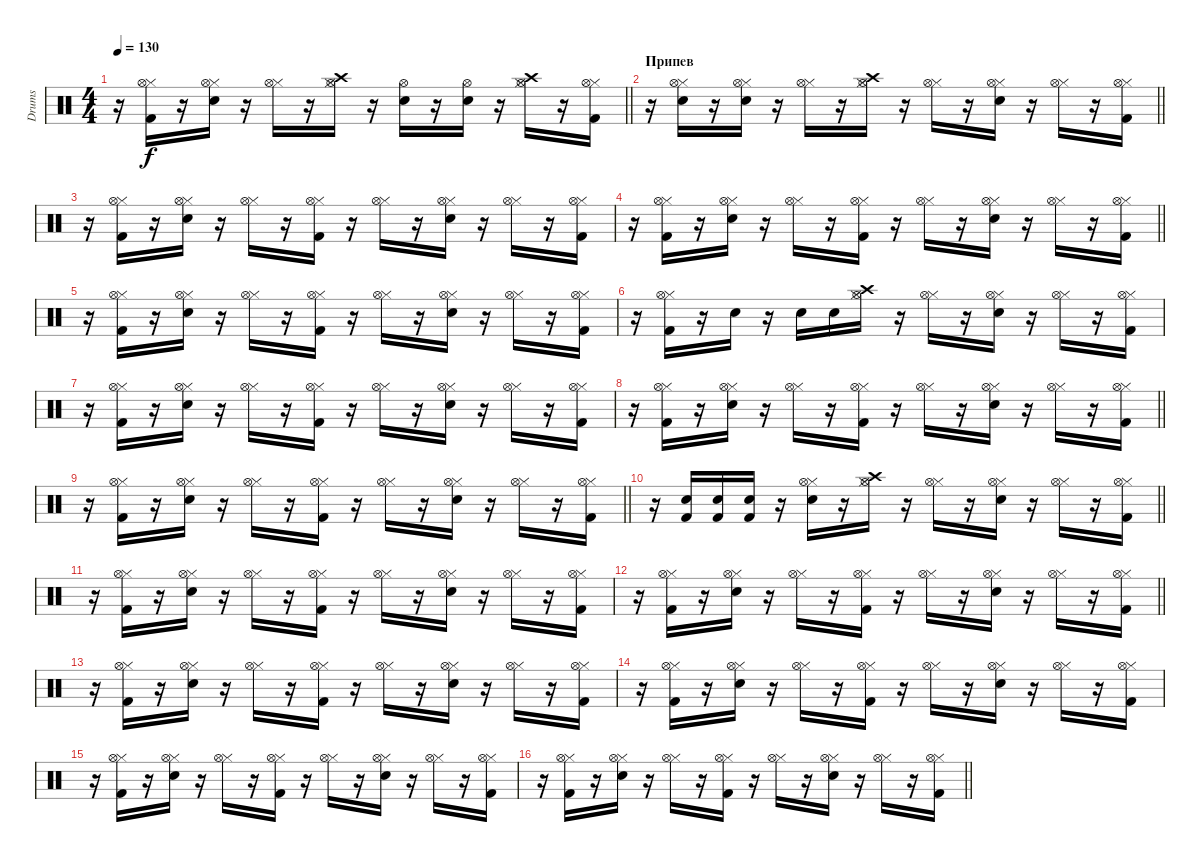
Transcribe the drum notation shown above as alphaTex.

\track ("Drums" "Drums") {instrument percussion}
\staff {score}
\articulation defaults
\ts (4 4)
\tempo 130
\clef neutral
\barLineRight lightlight
\ks c
r.16{dy f} ("Kick (hit) 2" "Hi-Hat (closed)" "Hi-Hat (open)").16 r.16 ("Snare (hit) 2" "Hi-Hat (closed)" "Hi-Hat (open)").16 r.16 ("Hi-Hat (closed)" "Hi-Hat (open)").16 r.16 ("Crash high (hit)" "Hi-Hat (closed)" "Hi-Hat (open)").16 r.16 ("Snare (hit) 2" "Hi-Hat (open)").16 r.16 ("Snare (hit) 2" "Hi-Hat (open)").16 r.16 ("Crash high (hit)" "Hi-Hat (closed)" "Hi-Hat (open)").16 r.16 ("Kick (hit) 2" "Hi-Hat (closed)" "Hi-Hat (open)").16 |
\section ("" "Припев")
\barLineRight lightlight
r.16 ("Snare (hit) 2" "Hi-Hat (closed)" "Hi-Hat (open)").16 r.16 ("Snare (hit) 2" "Hi-Hat (closed)" "Hi-Hat (open)").16 r.16 ("Hi-Hat (closed)" "Hi-Hat (open)").16 r.16 ("Crash high (hit)" "Hi-Hat (closed)" "Hi-Hat (open)").16 r.16 ("Hi-Hat (closed)" "Hi-Hat (open)").16 r.16 ("Snare (hit) 2" "Hi-Hat (closed)" "Hi-Hat (open)").16 r.16 ("Hi-Hat (closed)" "Hi-Hat (open)").16 r.16 ("Kick (hit) 2" "Hi-Hat (closed)" "Hi-Hat (open)").16 |
\section ("" "")
r.16 ("Kick (hit) 2" "Hi-Hat (closed)" "Hi-Hat (open)").16 r.16 ("Snare (hit) 2" "Hi-Hat (closed)" "Hi-Hat (open)").16 r.16 ("Hi-Hat (closed)" "Hi-Hat (open)").16 r.16 ("Kick (hit) 2" "Hi-Hat (closed)" "Hi-Hat (open)").16 r.16 ("Hi-Hat (closed)" "Hi-Hat (open)").16 r.16 ("Snare (hit) 2" "Hi-Hat (closed)" "Hi-Hat (open)").16 r.16 ("Hi-Hat (closed)" "Hi-Hat (open)").16 r.16 ("Kick (hit) 2" "Hi-Hat (closed)" "Hi-Hat (open)").16 |
\barLineRight lightlight
r.16 ("Kick (hit) 2" "Hi-Hat (closed)" "Hi-Hat (open)").16 r.16 ("Snare (hit) 2" "Hi-Hat (closed)" "Hi-Hat (open)").16 r.16 ("Hi-Hat (closed)" "Hi-Hat (open)").16 r.16 ("Kick (hit) 2" "Hi-Hat (closed)" "Hi-Hat (open)").16 r.16 ("Hi-Hat (closed)" "Hi-Hat (open)").16 r.16 ("Snare (hit) 2" "Hi-Hat (closed)" "Hi-Hat (open)").16 r.16 ("Hi-Hat (closed)" "Hi-Hat (open)").16 r.16 ("Kick (hit) 2" "Hi-Hat (closed)" "Hi-Hat (open)").16 |
r.16 ("Kick (hit) 2" "Hi-Hat (closed)" "Hi-Hat (open)").16 r.16 ("Snare (hit) 2" "Hi-Hat (closed)" "Hi-Hat (open)").16 r.16 ("Hi-Hat (closed)" "Hi-Hat (open)").16 r.16 ("Kick (hit) 2" "Hi-Hat (closed)" "Hi-Hat (open)").16 r.16 ("Hi-Hat (closed)" "Hi-Hat (open)").16 r.16 ("Snare (hit) 2" "Hi-Hat (closed)" "Hi-Hat (open)").16 r.16 ("Hi-Hat (closed)" "Hi-Hat (open)").16 r.16 ("Kick (hit) 2" "Hi-Hat (closed)" "Hi-Hat (open)").16 |
r.16 ("Kick (hit) 2" "Hi-Hat (closed)" "Hi-Hat (open)").16 r.16 "Snare (hit) 2".16 r.16 "Snare (hit) 2".16 "Snare (hit) 2".16 ("Crash high (hit)" "Hi-Hat (closed)" "Hi-Hat (open)").16 r.16 ("Hi-Hat (closed)" "Hi-Hat (open)").16 r.16 ("Snare (hit) 2" "Hi-Hat (closed)" "Hi-Hat (open)").16 r.16 ("Hi-Hat (closed)" "Hi-Hat (open)").16 r.16 ("Kick (hit) 2" "Hi-Hat (closed)" "Hi-Hat (open)").16 |
r.16 ("Kick (hit) 2" "Hi-Hat (closed)" "Hi-Hat (open)").16 r.16 ("Snare (hit) 2" "Hi-Hat (closed)" "Hi-Hat (open)").16 r.16 ("Hi-Hat (closed)" "Hi-Hat (open)").16 r.16 ("Kick (hit) 2" "Hi-Hat (closed)" "Hi-Hat (open)").16 r.16 ("Hi-Hat (closed)" "Hi-Hat (open)").16 r.16 ("Snare (hit) 2" "Hi-Hat (closed)" "Hi-Hat (open)").16 r.16 ("Hi-Hat (closed)" "Hi-Hat (open)").16 r.16 ("Kick (hit) 2" "Hi-Hat (closed)" "Hi-Hat (open)").16 |
\barLineRight lightlight
r.16 ("Kick (hit) 2" "Hi-Hat (closed)" "Hi-Hat (open)").16 r.16 ("Snare (hit) 2" "Hi-Hat (closed)" "Hi-Hat (open)").16 r.16 ("Hi-Hat (closed)" "Hi-Hat (open)").16 r.16 ("Kick (hit) 2" "Hi-Hat (closed)" "Hi-Hat (open)").16 r.16 ("Hi-Hat (closed)" "Hi-Hat (open)").16 r.16 ("Snare (hit) 2" "Hi-Hat (closed)" "Hi-Hat (open)").16 r.16 ("Hi-Hat (closed)" "Hi-Hat (open)").16 r.16 ("Kick (hit) 2" "Hi-Hat (closed)" "Hi-Hat (open)").16 |
\barLineRight lightlight
r.16 ("Kick (hit) 2" "Hi-Hat (closed)" "Hi-Hat (open)").16 r.16 ("Snare (hit) 2" "Hi-Hat (closed)" "Hi-Hat (open)").16 r.16 ("Hi-Hat (closed)" "Hi-Hat (open)").16 r.16 ("Kick (hit) 2" "Hi-Hat (closed)" "Hi-Hat (open)").16 r.16 ("Hi-Hat (closed)" "Hi-Hat (open)").16 r.16 ("Snare (hit) 2" "Hi-Hat (closed)" "Hi-Hat (open)").16 r.16 ("Hi-Hat (closed)" "Hi-Hat (open)").16 r.16 ("Kick (hit) 2" "Hi-Hat (closed)" "Hi-Hat (open)").16 |
\barLineRight lightlight
r.16 ("Snare (hit) 2" "Kick (hit) 2").16 ("Snare (hit) 2" "Kick (hit) 2").16 ("Snare (hit) 2" "Kick (hit) 2").16 r.16 ("Snare (hit) 2" "Hi-Hat (closed)" "Hi-Hat (open)").16 r.16 ("Crash high (hit)" "Hi-Hat (closed)" "Hi-Hat (open)").16 r.16 ("Hi-Hat (closed)" "Hi-Hat (open)").16 r.16 ("Snare (hit) 2" "Hi-Hat (closed)" "Hi-Hat (open)").16 r.16 ("Hi-Hat (closed)" "Hi-Hat (open)").16 r.16 ("Kick (hit) 2" "Hi-Hat (closed)" "Hi-Hat (open)").16 |
r.16 ("Kick (hit) 2" "Hi-Hat (closed)" "Hi-Hat (open)").16 r.16 ("Snare (hit) 2" "Hi-Hat (closed)" "Hi-Hat (open)").16 r.16 ("Hi-Hat (closed)" "Hi-Hat (open)").16 r.16 ("Kick (hit) 2" "Hi-Hat (closed)" "Hi-Hat (open)").16 r.16 ("Hi-Hat (closed)" "Hi-Hat (open)").16 r.16 ("Snare (hit) 2" "Hi-Hat (closed)" "Hi-Hat (open)").16 r.16 ("Hi-Hat (closed)" "Hi-Hat (open)").16 r.16 ("Kick (hit) 2" "Hi-Hat (closed)" "Hi-Hat (open)").16 |
\barLineRight lightlight
r.16 ("Kick (hit) 2" "Hi-Hat (closed)" "Hi-Hat (open)").16 r.16 ("Snare (hit) 2" "Hi-Hat (closed)" "Hi-Hat (open)").16 r.16 ("Hi-Hat (closed)" "Hi-Hat (open)").16 r.16 ("Kick (hit) 2" "Hi-Hat (closed)" "Hi-Hat (open)").16 r.16 ("Hi-Hat (closed)" "Hi-Hat (open)").16 r.16 ("Snare (hit) 2" "Hi-Hat (closed)" "Hi-Hat (open)").16 r.16 ("Hi-Hat (closed)" "Hi-Hat (open)").16 r.16 ("Kick (hit) 2" "Hi-Hat (closed)" "Hi-Hat (open)").16 |
r.16 ("Kick (hit) 2" "Hi-Hat (closed)" "Hi-Hat (open)").16 r.16 ("Snare (hit) 2" "Hi-Hat (closed)" "Hi-Hat (open)").16 r.16 ("Hi-Hat (closed)" "Hi-Hat (open)").16 r.16 ("Kick (hit) 2" "Hi-Hat (closed)" "Hi-Hat (open)").16 r.16 ("Hi-Hat (closed)" "Hi-Hat (open)").16 r.16 ("Snare (hit) 2" "Hi-Hat (closed)" "Hi-Hat (open)").16 r.16 ("Hi-Hat (closed)" "Hi-Hat (open)").16 r.16 ("Kick (hit) 2" "Hi-Hat (closed)" "Hi-Hat (open)").16 |
r.16 ("Kick (hit) 2" "Hi-Hat (closed)" "Hi-Hat (open)").16 r.16 ("Snare (hit) 2" "Hi-Hat (closed)" "Hi-Hat (open)").16 r.16 ("Hi-Hat (closed)" "Hi-Hat (open)").16 r.16 ("Kick (hit) 2" "Hi-Hat (closed)" "Hi-Hat (open)").16 r.16 ("Hi-Hat (closed)" "Hi-Hat (open)").16 r.16 ("Snare (hit) 2" "Hi-Hat (closed)" "Hi-Hat (open)").16 r.16 ("Hi-Hat (closed)" "Hi-Hat (open)").16 r.16 ("Kick (hit) 2" "Hi-Hat (closed)" "Hi-Hat (open)").16 |
r.16 ("Kick (hit) 2" "Hi-Hat (closed)" "Hi-Hat (open)").16 r.16 ("Snare (hit) 2" "Hi-Hat (closed)" "Hi-Hat (open)").16 r.16 ("Hi-Hat (closed)" "Hi-Hat (open)").16 r.16 ("Kick (hit) 2" "Hi-Hat (closed)" "Hi-Hat (open)").16 r.16 ("Hi-Hat (closed)" "Hi-Hat (open)").16 r.16 ("Snare (hit) 2" "Hi-Hat (closed)" "Hi-Hat (open)").16 r.16 ("Hi-Hat (closed)" "Hi-Hat (open)").16 r.16 ("Kick (hit) 2" "Hi-Hat (closed)" "Hi-Hat (open)").16 |
\barLineRight lightlight
r.16 ("Kick (hit) 2" "Hi-Hat (closed)" "Hi-Hat (open)").16 r.16 ("Snare (hit) 2" "Hi-Hat (closed)" "Hi-Hat (open)").16 r.16 ("Hi-Hat (closed)" "Hi-Hat (open)").16 r.16 ("Kick (hit) 2" "Hi-Hat (closed)" "Hi-Hat (open)").16 r.16 ("Hi-Hat (closed)" "Hi-Hat (open)").16 r.16 ("Snare (hit) 2" "Hi-Hat (closed)" "Hi-Hat (open)").16 r.16 ("Hi-Hat (closed)" "Hi-Hat (open)").16 r.16 ("Kick (hit) 2" "Hi-Hat (closed)" "Hi-Hat (open)").16
